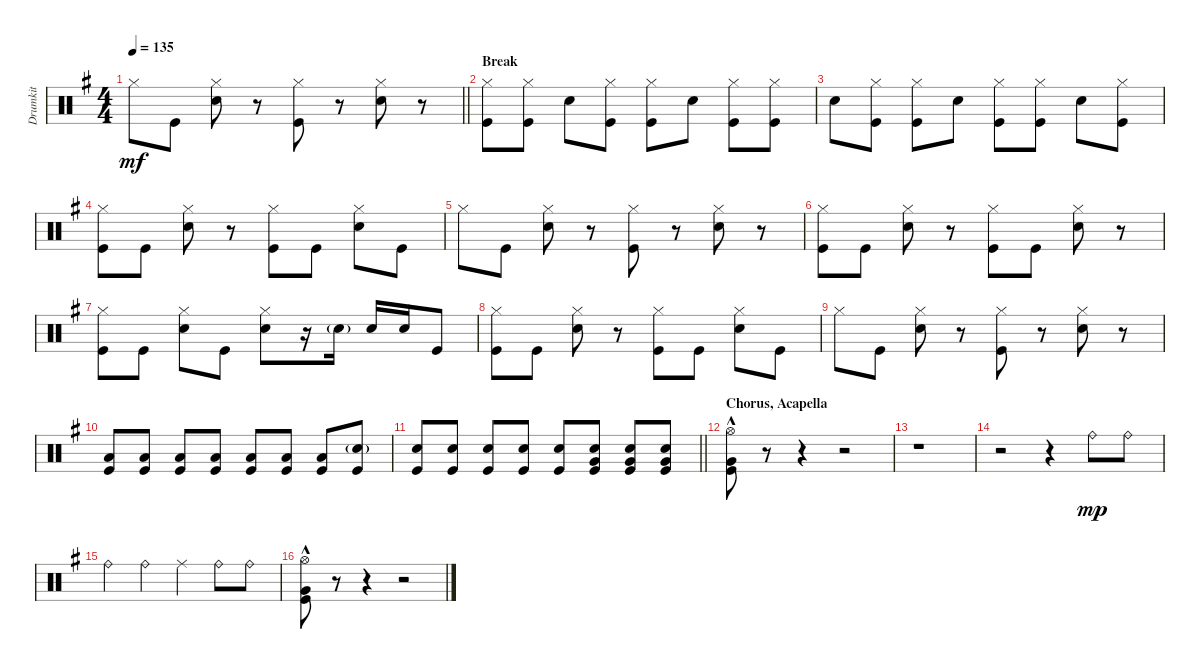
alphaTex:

\track ("Drumkit" "Drumkit") {instrument percussion}
\staff {score}
\articulation defaults
\ts (4 4)
\tempo 135
\clef neutral
\barLineRight lightlight
\ks g "Hi-Hat (closed)".8{dy mf} "Kick (hit)".8
("Hi-Hat (closed)" "Snare (hit) 2").8 r.8 ("Hi-Hat (closed)" "Kick (hit)").8 r.8 ("Hi-Hat (closed)" "Snare (hit) 2").8 r.8 |
\section ("" "Break")
("Kick (hit)" "Hi-Hat (closed)").8 ("Kick (hit)" "Hi-Hat (closed)").8 "Snare (hit) 2".8 ("Kick (hit)" "Hi-Hat (closed)").8 ("Kick (hit)" "Hi-Hat (closed)").8 "Snare (hit) 2".8 ("Kick (hit)" "Hi-Hat (closed)").8 ("Kick (hit)" "Hi-Hat (closed)").8 |
"Snare (hit) 2".8 ("Kick (hit)" "Hi-Hat (closed)").8 ("Kick (hit)" "Hi-Hat (closed)").8 "Snare (hit) 2".8 ("Kick (hit)" "Hi-Hat (closed)").8 ("Kick (hit)" "Hi-Hat (closed)").8 "Snare (hit) 2".8 ("Kick (hit)" "Hi-Hat (closed)").8 |
("Kick (hit)" "Hi-Hat (closed)").8 "Kick (hit)".8 ("Hi-Hat (closed)" "Snare (hit) 2").8 r.8 ("Hi-Hat (closed)" "Kick (hit)").8 "Kick (hit)".8 ("Hi-Hat (closed)" "Snare (hit) 2").8 "Kick (hit)".8 |
"Hi-Hat (closed)".8 "Kick (hit)".8 ("Hi-Hat (closed)" "Snare (hit) 2").8 r.8 ("Hi-Hat (closed)" "Kick (hit)").8 r.8 ("Hi-Hat (closed)" "Snare (hit) 2").8 r.8 |
("Kick (hit)" "Hi-Hat (closed)").8 "Kick (hit)".8 ("Snare (hit) 2" "Hi-Hat (closed)").8 r.8 ("Kick (hit)" "Hi-Hat (closed)").8 "Kick (hit)".8 ("Snare (hit) 2" "Hi-Hat (closed)").8 r.8 |
("Kick (hit)" "Hi-Hat (closed)").8 "Kick (hit)".8 ("Snare (hit) 2" "Hi-Hat (closed)").8 "Kick (hit)".8 ("Snare (hit) 2" "Hi-Hat (closed)").8 r.16 "Snare (hit) 2"{g}.16 "Snare (hit) 2".16 "Snare (hit) 2".16 "Kick (hit)".8 |
("Kick (hit)" "Hi-Hat (closed)").8 "Kick (hit)".8 ("Hi-Hat (closed)" "Snare (hit) 2").8 r.8 ("Hi-Hat (closed)" "Kick (hit)").8 "Kick (hit)".8 ("Hi-Hat (closed)" "Snare (hit) 2").8 "Kick (hit)".8 |
"Hi-Hat (closed)".8 "Kick (hit)".8 ("Hi-Hat (closed)" "Snare (hit) 2").8 r.8 ("Hi-Hat (closed)" "Kick (hit)").8 r.8 ("Hi-Hat (closed)" "Snare (hit) 2").8 r.8 |
("Kick (hit)" "Low Floor Tom (hit)").8 ("Kick (hit)" "Low Floor Tom (hit)").8 ("Kick (hit)" "Low Floor Tom (hit)").8 ("Kick (hit)" "Low Tom (hit)").8 ("Kick (hit)" "Low Tom (hit)").8 ("Kick (hit)" "Low Tom (hit)").8 ("Kick (hit)" "Low Tom (hit)").8 ("Kick (hit)" "Snare (hit) 2"{g}).8 |
\barLineRight lightlight
("Kick (hit)" "Snare (hit) 2").8 ("Kick (hit)" "Snare (hit) 2").8 ("Kick (hit)" "Snare (hit) 2").8 ("Kick (hit)" "Snare (hit) 2").8 ("Kick (hit)" "Snare (hit) 2").8 ("Kick (hit)" "Snare (hit) 2" "Very Low Tom (hit)").8 ("Kick (hit)" "Snare (hit) 2" "Very Low Tom (hit)").8 ("Kick (hit)" "Snare (hit) 2" "Very Low Tom (hit)").8 |
\section ("" "Chorus, Acapella")
("Hi-Hat (open)"{hac} "Kick (hit)" "Very Low Tom (hit)").8 r.8 r.4 r.2 |
r.1 |
r.2 r.4 "Ride (bell)".8{dy mp} "Ride (bell)".8 |
"Ride (bell)".4 "Ride (bell)".4 "Ride (middle)".4 "Ride (bell)".8 "Ride (bell)".8 |
("Hi-Hat (open)"{hac} "Kick (hit)" "Very Low Tom (hit)").8 r.8 r.4 r.2
